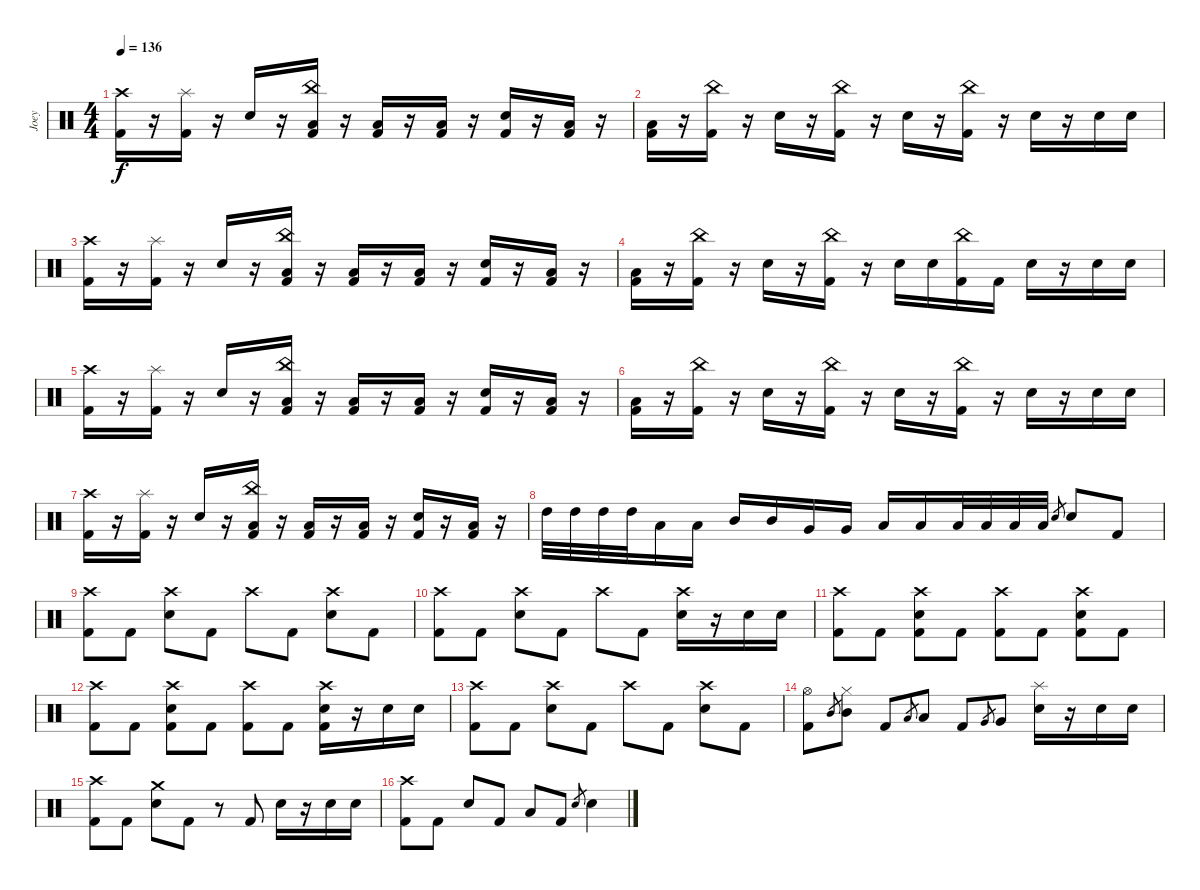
\track ("Joey" "Joey") {instrument percussion}
\staff {score}
\articulation defaults
\ts (4 4)
\tempo 136
\clef neutral
\ks c
("Crash high (hit)" "Kick (hit) 2").16{dy f} r.16 ("Splash (hit)" "Kick (hit) 2").16 r.16 "Snare (hit) 2".16 r.16 ("China (hit)" "Low Floor Tom (hit)" "Kick (hit) 2").16 r.16 ("Low Floor Tom (hit)" "Kick (hit) 2").16 r.16 ("Low Floor Tom (hit)" "Kick (hit) 2").16 r.16 ("Snare (hit) 2" "Kick (hit) 2").16 r.16 ("Low Floor Tom (hit)" "Kick (hit) 2").16 r.16 |
("Low Floor Tom (hit)" "Kick (hit) 2").16 r.16 ("China (hit)" "Kick (hit) 2").16 r.16 "Snare (hit) 2".16 r.16 ("China (hit)" "Kick (hit) 2").16 r.16 "Snare (hit) 2".16 r.16 ("China (hit)" "Kick (hit) 2").16 r.16 "Snare (hit) 2".16 r.16 "Snare (hit) 2".16 "Snare (hit) 2".16 |
("Crash high (hit)" "Kick (hit) 2").16 r.16 ("Splash (hit)" "Kick (hit) 2").16 r.16 "Snare (hit) 2".16 r.16 ("China (hit)" "Low Floor Tom (hit)" "Kick (hit) 2").16 r.16 ("Low Floor Tom (hit)" "Kick (hit) 2").16 r.16 ("Low Floor Tom (hit)" "Kick (hit) 2").16 r.16 ("Snare (hit) 2" "Kick (hit) 2").16 r.16 ("Low Floor Tom (hit)" "Kick (hit) 2").16 r.16 |
("Low Floor Tom (hit)" "Kick (hit) 2").16 r.16 ("China (hit)" "Kick (hit) 2").16 r.16 "Snare (hit) 2".16 r.16 ("China (hit)" "Kick (hit) 2").16 r.16 "Snare (hit) 2".16 "Snare (hit) 2".16 ("China (hit)" "Kick (hit) 2").16 "Kick (hit) 2".16 "Snare (hit) 2".16 r.16 "Snare (hit) 2".16 "Snare (hit) 2".16 |
("Crash high (hit)" "Kick (hit) 2").16 r.16 ("Splash (hit)" "Kick (hit) 2").16 r.16 "Snare (hit) 2".16 r.16 ("China (hit)" "Low Floor Tom (hit)" "Kick (hit) 2").16 r.16 ("Low Floor Tom (hit)" "Kick (hit) 2").16 r.16 ("Low Floor Tom (hit)" "Kick (hit) 2").16 r.16 ("Snare (hit) 2" "Kick (hit) 2").16 r.16 ("Low Floor Tom (hit)" "Kick (hit) 2").16 r.16 |
("Low Floor Tom (hit)" "Kick (hit) 2").16 r.16 ("China (hit)" "Kick (hit) 2").16 r.16 "Snare (hit) 2".16 r.16 ("China (hit)" "Kick (hit) 2").16 r.16 "Snare (hit) 2".16 r.16 ("China (hit)" "Kick (hit) 2").16 r.16 "Snare (hit) 2".16 r.16 "Snare (hit) 2".16 "Snare (hit) 2".16 |
("Crash high (hit)" "Kick (hit) 2").16 r.16 ("Splash (hit)" "Kick (hit) 2").16 r.16 "Snare (hit) 2".16 r.16 ("China (hit)" "Low Floor Tom (hit)" "Kick (hit) 2").16 r.16 ("Low Floor Tom (hit)" "Kick (hit) 2").16 r.16 ("Low Floor Tom (hit)" "Kick (hit) 2").16 r.16 ("Snare (hit) 2" "Kick (hit) 2").16 r.16 ("Low Floor Tom (hit)" "Kick (hit) 2").16 r.16 |
"High Tom (hit)".32 "High Tom (hit)".32 "High Tom (hit)".32 "High Tom (hit)".32 "Low Tom (hit)".16 "Low Tom (hit)".16 "Mid Tom (hit)".16 "Mid Tom (hit)".16 "Very Low Tom (hit)".16 "Very Low Tom (hit)".16 "Low Tom (hit)".16 "Low Tom (hit)".16 "Low Floor Tom (hit)".32 "Low Floor Tom (hit)".32 "Low Floor Tom (hit)".32 "Low Floor Tom (hit)".32 "Snare (hit) 2".8{gr} "Snare (hit) 2".8 "Kick (hit) 2".8 |
("Crash high (hit)" "Kick (hit) 2").8 "Kick (hit) 2".8 ("Crash high (hit)" "Snare (hit) 2").8 "Kick (hit) 2".8 "Crash high (hit)".8 "Kick (hit) 2".8 ("Crash high (hit)" "Snare (hit) 2").8 "Kick (hit) 2".8 |
("Crash high (hit)" "Kick (hit) 2").8 "Kick (hit) 2".8 ("Crash high (hit)" "Snare (hit) 2").8 "Kick (hit) 2".8 "Crash high (hit)".8 "Kick (hit) 2".8 ("Crash high (hit)" "Snare (hit) 2").16 r.16 "Snare (hit) 2".16 "Snare (hit) 2".16 |
("Crash high (hit)" "Kick (hit) 2").8 "Kick (hit) 2".8 ("Crash high (hit)" "Snare (hit) 2" "Kick (hit) 2").8 "Kick (hit) 2".8 ("Crash high (hit)" "Kick (hit) 2").8 "Kick (hit) 2".8 ("Crash high (hit)" "Snare (hit) 2" "Kick (hit) 2").8 "Kick (hit) 2".8 |
("Crash high (hit)" "Kick (hit) 2").8 "Kick (hit) 2".8 ("Crash high (hit)" "Snare (hit) 2" "Kick (hit) 2").8 "Kick (hit) 2".8 ("Crash high (hit)" "Kick (hit) 2").8 "Kick (hit) 2".8 ("Crash high (hit)" "Snare (hit) 2" "Kick (hit) 2").16 r.16 "Snare (hit) 2".16 "Snare (hit) 2".16 |
("Crash high (hit)" "Kick (hit) 2").8 "Kick (hit) 2".8 ("Crash high (hit)" "Snare (hit) 2").8 "Kick (hit) 2".8 "Crash high (hit)".8 "Kick (hit) 2".8 ("Crash high (hit)" "Snare (hit) 2").8 "Kick (hit) 2".8 |
("Hi-Hat (open)" "Kick (hit) 2").8 "Mid Tom (hit)".8{gr} ("Hi-Hat (closed)" "Mid Tom (hit)").8 "Kick (hit) 2".8 "Low Tom (hit)".8{gr} "Low Tom (hit)".8 "Kick (hit) 2".8 "Very Low Tom (hit)".8{gr} "Very Low Tom (hit)".8 ("Splash (hit)" "Snare (hit) 2").16 r.16 "Snare (hit) 2".16 "Snare (hit) 2".16 |
("Crash high (hit)" "Kick (hit) 2").8 "Kick (hit) 2".8 ("Crash medium (hit)" "Snare (hit) 2").8 "Kick (hit) 2".8 r.8 "Kick (hit) 2".8 "Snare (hit) 2".16 r.16 "Snare (hit) 2".16 "Snare (hit) 2".16 |
("Crash high (hit)" "Kick (hit) 2").8 "Kick (hit) 2".8 "Snare (hit) 2".8 "Kick (hit) 2".8 "Low Floor Tom (hit)".8 "Kick (hit) 2".8 "Snare (hit) 2".8{gr} "Snare (hit) 2".4
